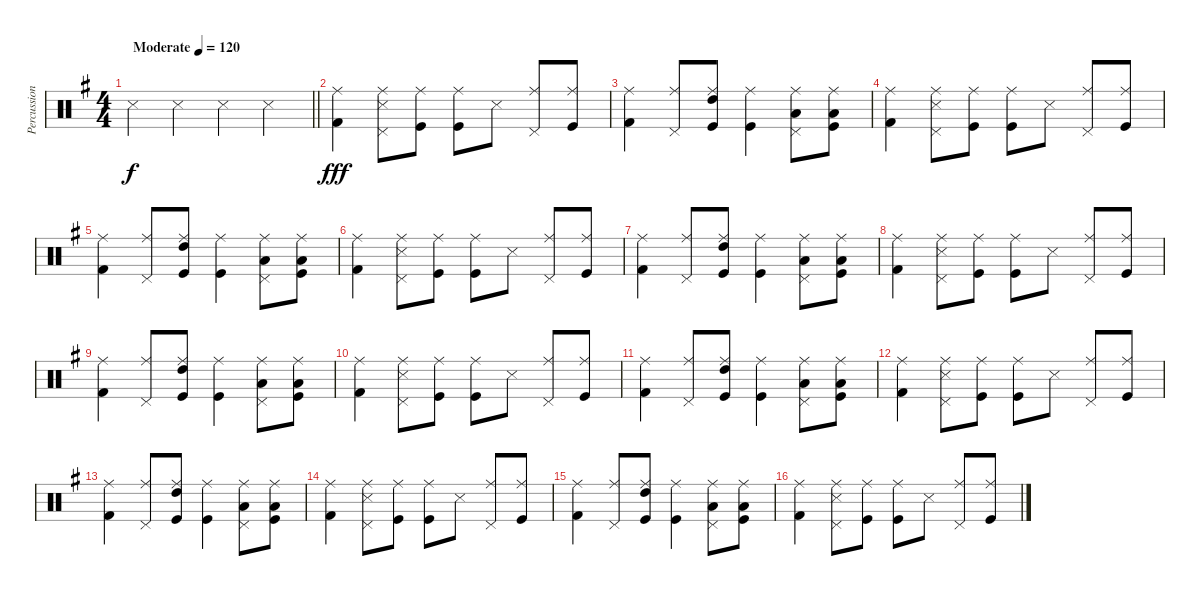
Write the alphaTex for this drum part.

\track ("Percussions" "Percussion") {instrument percussion}
\staff {score}
\articulation defaults
\ts (4 4)
\tempo (120 "Moderate")
\clef neutral
\barLineRight lightlight
\ks g "Metronome (hit)".4{dy f} "Metronome (hit)".4 "Metronome (hit)".4 "Metronome (hit)".4
|
\section ("" "")
("Ride (middle)" "Kick (hit) 2").4{dy fff} ("Ride (middle)" "Pedal Hi-Hat (hit)" "Snare (side stick) 3").8 ("Ride (middle)" "Kick (hit)").8 ("Ride (middle)" "Kick (hit)").8 "Snare (side stick) 3".8 ("Ride (middle)" "Pedal Hi-Hat (hit)").8 ("Ride (middle)" "Kick (hit)").8 |
("Ride (middle)" "Kick (hit) 2").4 ("Ride (middle)" "Pedal Hi-Hat (hit)").8 ("Ride (middle)" "Kick (hit)" "High Tom (hit)").8 ("Ride (middle)" "Kick (hit)").4 ("Ride (middle)" "Low Tom (hit)" "Pedal Hi-Hat (hit)").8 ("Ride (middle)" "Kick (hit)" "Low Tom (hit)").8 |
("Ride (middle)" "Kick (hit) 2").4 ("Ride (middle)" "Pedal Hi-Hat (hit)" "Snare (side stick) 3").8 ("Ride (middle)" "Kick (hit)").8 ("Ride (middle)" "Kick (hit)").8 "Snare (side stick) 3".8 ("Ride (middle)" "Pedal Hi-Hat (hit)").8 ("Ride (middle)" "Kick (hit)").8 |
("Ride (middle)" "Kick (hit) 2").4 ("Ride (middle)" "Pedal Hi-Hat (hit)").8 ("Ride (middle)" "Kick (hit)" "High Tom (hit)").8 ("Ride (middle)" "Kick (hit)").4 ("Ride (middle)" "Low Tom (hit)" "Pedal Hi-Hat (hit)").8 ("Ride (middle)" "Kick (hit)" "Low Tom (hit)").8 |
("Ride (middle)" "Kick (hit) 2").4 ("Ride (middle)" "Pedal Hi-Hat (hit)" "Snare (side stick) 3").8 ("Ride (middle)" "Kick (hit)").8 ("Ride (middle)" "Kick (hit)").8 "Snare (side stick) 3".8 ("Ride (middle)" "Pedal Hi-Hat (hit)").8 ("Ride (middle)" "Kick (hit)").8 |
("Ride (middle)" "Kick (hit) 2").4 ("Ride (middle)" "Pedal Hi-Hat (hit)").8 ("Ride (middle)" "Kick (hit)" "High Tom (hit)").8 ("Ride (middle)" "Kick (hit)").4 ("Ride (middle)" "Low Tom (hit)" "Pedal Hi-Hat (hit)").8 ("Ride (middle)" "Kick (hit)" "Low Tom (hit)").8 |
("Ride (middle)" "Kick (hit) 2").4 ("Ride (middle)" "Pedal Hi-Hat (hit)" "Snare (side stick) 3").8 ("Ride (middle)" "Kick (hit)").8 ("Ride (middle)" "Kick (hit)").8 "Snare (side stick) 3".8 ("Ride (middle)" "Pedal Hi-Hat (hit)").8 ("Ride (middle)" "Kick (hit)").8 |
("Ride (middle)" "Kick (hit) 2").4 ("Ride (middle)" "Pedal Hi-Hat (hit)").8 ("Ride (middle)" "Kick (hit)" "High Tom (hit)").8 ("Ride (middle)" "Kick (hit)").4 ("Ride (middle)" "Low Tom (hit)" "Pedal Hi-Hat (hit)").8 ("Ride (middle)" "Kick (hit)" "Low Tom (hit)").8 |
("Ride (middle)" "Kick (hit) 2").4 ("Ride (middle)" "Pedal Hi-Hat (hit)" "Snare (side stick) 3").8 ("Ride (middle)" "Kick (hit)").8 ("Ride (middle)" "Kick (hit)").8 "Snare (side stick) 3".8 ("Ride (middle)" "Pedal Hi-Hat (hit)").8 ("Ride (middle)" "Kick (hit)").8 |
("Ride (middle)" "Kick (hit) 2").4 ("Ride (middle)" "Pedal Hi-Hat (hit)").8 ("Ride (middle)" "Kick (hit)" "High Tom (hit)").8 ("Ride (middle)" "Kick (hit)").4 ("Ride (middle)" "Low Tom (hit)" "Pedal Hi-Hat (hit)").8 ("Ride (middle)" "Kick (hit)" "Low Tom (hit)").8 |
("Ride (middle)" "Kick (hit) 2").4 ("Ride (middle)" "Pedal Hi-Hat (hit)" "Snare (side stick) 3").8 ("Ride (middle)" "Kick (hit)").8 ("Ride (middle)" "Kick (hit)").8 "Snare (side stick) 3".8 ("Ride (middle)" "Pedal Hi-Hat (hit)").8 ("Ride (middle)" "Kick (hit)").8 |
("Ride (middle)" "Kick (hit) 2").4 ("Ride (middle)" "Pedal Hi-Hat (hit)").8 ("Ride (middle)" "Kick (hit)" "High Tom (hit)").8 ("Ride (middle)" "Kick (hit)").4 ("Ride (middle)" "Low Tom (hit)" "Pedal Hi-Hat (hit)").8 ("Ride (middle)" "Kick (hit)" "Low Tom (hit)").8 |
("Ride (middle)" "Kick (hit) 2").4 ("Ride (middle)" "Pedal Hi-Hat (hit)" "Snare (side stick) 3").8 ("Ride (middle)" "Kick (hit)").8 ("Ride (middle)" "Kick (hit)").8 "Snare (side stick) 3".8 ("Ride (middle)" "Pedal Hi-Hat (hit)").8 ("Ride (middle)" "Kick (hit)").8 |
("Ride (middle)" "Kick (hit) 2").4 ("Ride (middle)" "Pedal Hi-Hat (hit)").8 ("Ride (middle)" "Kick (hit)" "High Tom (hit)").8 ("Ride (middle)" "Kick (hit)").4 ("Ride (middle)" "Low Tom (hit)" "Pedal Hi-Hat (hit)").8 ("Ride (middle)" "Kick (hit)" "Low Tom (hit)").8 |
("Ride (middle)" "Kick (hit) 2").4 ("Ride (middle)" "Pedal Hi-Hat (hit)" "Snare (side stick) 3").8 ("Ride (middle)" "Kick (hit)").8 ("Ride (middle)" "Kick (hit)").8 "Snare (side stick) 3".8 ("Ride (middle)" "Pedal Hi-Hat (hit)").8 ("Ride (middle)" "Kick (hit)").8
